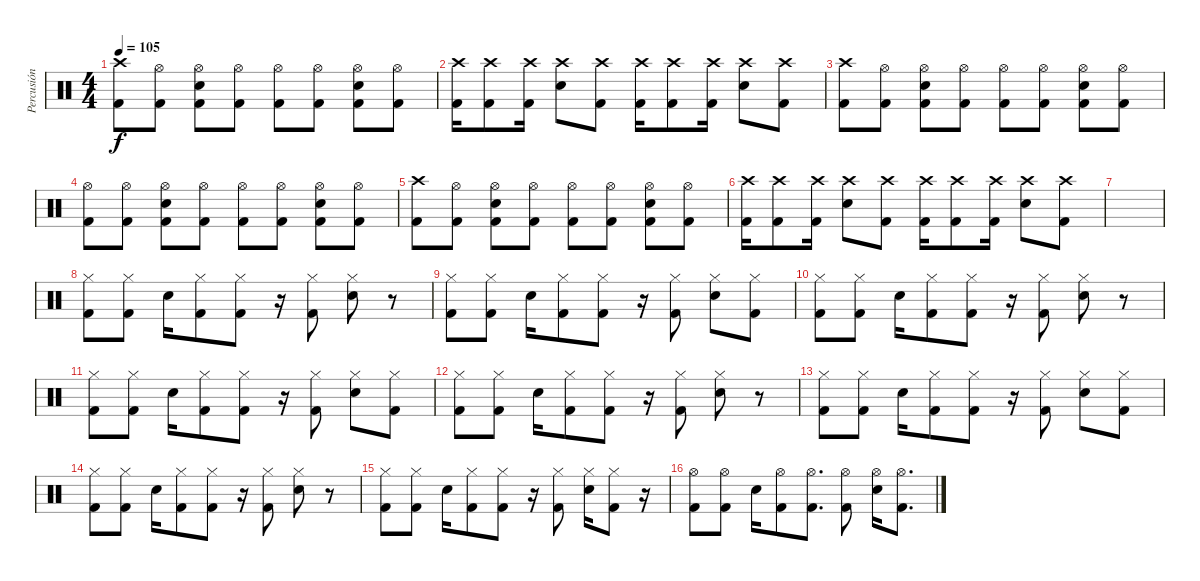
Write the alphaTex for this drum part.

\track ("Percusión" "Percusión") {instrument percussion}
\staff {score}
\articulation defaults
\ts (4 4)
\tempo 105
\clef neutral
\ks c
("Crash high (hit)" "Kick (hit) 2").8{dy f} ("Hi-Hat (open)" "Kick (hit) 2").8 ("Hi-Hat (open)" "Electric Snare (hit)" "Kick (hit) 2").8 ("Hi-Hat (open)" "Kick (hit) 2").8 ("Hi-Hat (open)" "Kick (hit) 2").8 ("Hi-Hat (open)" "Kick (hit) 2").8 ("Hi-Hat (open)" "Electric Snare (hit)" "Kick (hit) 2").8 ("Hi-Hat (open)" "Kick (hit) 2").8 |
("Crash high (hit)" "Kick (hit) 2").16 ("Crash high (hit)" "Kick (hit) 2").8 ("Crash high (hit)" "Kick (hit) 2").16 ("Crash high (hit)" "Electric Snare (hit)").8 ("Crash high (hit)" "Kick (hit) 2").8 ("Crash high (hit)" "Kick (hit) 2").16 ("Crash high (hit)" "Kick (hit) 2").8 ("Crash high (hit)" "Kick (hit) 2").16 ("Crash high (hit)" "Electric Snare (hit)").8 ("Crash high (hit)" "Kick (hit) 2").8 |
("Crash high (hit)" "Kick (hit) 2").8 ("Hi-Hat (open)" "Kick (hit) 2").8 ("Hi-Hat (open)" "Electric Snare (hit)" "Kick (hit) 2").8 ("Hi-Hat (open)" "Kick (hit) 2").8 ("Hi-Hat (open)" "Kick (hit) 2").8 ("Hi-Hat (open)" "Kick (hit) 2").8 ("Hi-Hat (open)" "Electric Snare (hit)" "Kick (hit) 2").8 ("Hi-Hat (open)" "Kick (hit) 2").8 |
("Hi-Hat (open)" "Kick (hit) 2").8 ("Hi-Hat (open)" "Kick (hit) 2").8 ("Hi-Hat (open)" "Electric Snare (hit)" "Kick (hit) 2").8 ("Hi-Hat (open)" "Kick (hit) 2").8 ("Hi-Hat (open)" "Kick (hit) 2").8 ("Hi-Hat (open)" "Kick (hit) 2").8 ("Hi-Hat (open)" "Electric Snare (hit)" "Kick (hit) 2").8 ("Hi-Hat (open)" "Kick (hit) 2").8 |
("Crash high (hit)" "Kick (hit) 2").8 ("Hi-Hat (open)" "Kick (hit) 2").8 ("Hi-Hat (open)" "Electric Snare (hit)" "Kick (hit) 2").8 ("Hi-Hat (open)" "Kick (hit) 2").8 ("Hi-Hat (open)" "Kick (hit) 2").8 ("Hi-Hat (open)" "Kick (hit) 2").8 ("Hi-Hat (open)" "Electric Snare (hit)" "Kick (hit) 2").8 ("Hi-Hat (open)" "Kick (hit) 2").8 |
("Crash high (hit)" "Kick (hit) 2").16 ("Crash high (hit)" "Kick (hit) 2").8 ("Crash high (hit)" "Kick (hit) 2").16 ("Crash high (hit)" "Electric Snare (hit)").8 ("Crash high (hit)" "Kick (hit) 2").8 ("Crash high (hit)" "Kick (hit) 2").16 ("Crash high (hit)" "Kick (hit) 2").8 ("Crash high (hit)" "Kick (hit) 2").16 ("Crash high (hit)" "Electric Snare (hit)").8 ("Crash high (hit)" "Kick (hit) 2").8 |
|
("Hi-Hat (closed)" "Kick (hit) 2").8{volume 10} ("Hi-Hat (closed)" "Kick (hit) 2").8 "Electric Snare (hit)".16 ("Hi-Hat (closed)" "Kick (hit) 2").8 ("Hi-Hat (closed)" "Kick (hit) 2").8 r.16 ("Hi-Hat (closed)" "Kick (hit) 2").8 ("Hi-Hat (closed)" "Electric Snare (hit)").8 r.8 |
("Hi-Hat (closed)" "Kick (hit) 2").8 ("Hi-Hat (closed)" "Kick (hit) 2").8 "Electric Snare (hit)".16 ("Hi-Hat (closed)" "Kick (hit) 2").8 ("Hi-Hat (closed)" "Kick (hit) 2").8 r.16 ("Hi-Hat (closed)" "Kick (hit) 2").8 ("Hi-Hat (closed)" "Electric Snare (hit)").8 ("Hi-Hat (closed)" "Kick (hit) 2").8 |
("Hi-Hat (closed)" "Kick (hit) 2").8 ("Hi-Hat (closed)" "Kick (hit) 2").8 "Electric Snare (hit)".16 ("Hi-Hat (closed)" "Kick (hit) 2").8 ("Hi-Hat (closed)" "Kick (hit) 2").8 r.16 ("Hi-Hat (closed)" "Kick (hit) 2").8 ("Hi-Hat (closed)" "Electric Snare (hit)").8 r.8 |
("Hi-Hat (closed)" "Kick (hit) 2").8 ("Hi-Hat (closed)" "Kick (hit) 2").8 "Electric Snare (hit)".16 ("Hi-Hat (closed)" "Kick (hit) 2").8 ("Hi-Hat (closed)" "Kick (hit) 2").8 r.16 ("Hi-Hat (closed)" "Kick (hit) 2").8 ("Hi-Hat (closed)" "Electric Snare (hit)").8 ("Hi-Hat (closed)" "Kick (hit) 2").8 |
("Hi-Hat (closed)" "Kick (hit) 2").8 ("Hi-Hat (closed)" "Kick (hit) 2").8 "Electric Snare (hit)".16 ("Hi-Hat (closed)" "Kick (hit) 2").8 ("Hi-Hat (closed)" "Kick (hit) 2").8 r.16 ("Hi-Hat (closed)" "Kick (hit) 2").8 ("Hi-Hat (closed)" "Electric Snare (hit)").8 r.8 |
("Hi-Hat (closed)" "Kick (hit) 2").8 ("Hi-Hat (closed)" "Kick (hit) 2").8 "Electric Snare (hit)".16 ("Hi-Hat (closed)" "Kick (hit) 2").8 ("Hi-Hat (closed)" "Kick (hit) 2").8 r.16 ("Hi-Hat (closed)" "Kick (hit) 2").8 ("Hi-Hat (closed)" "Electric Snare (hit)").8 ("Hi-Hat (closed)" "Kick (hit) 2").8 |
("Hi-Hat (closed)" "Kick (hit) 2").8 ("Hi-Hat (closed)" "Kick (hit) 2").8 "Electric Snare (hit)".16 ("Hi-Hat (closed)" "Kick (hit) 2").8 ("Hi-Hat (closed)" "Kick (hit) 2").8 r.16 ("Hi-Hat (closed)" "Kick (hit) 2").8 ("Hi-Hat (closed)" "Electric Snare (hit)").8 r.8 |
("Hi-Hat (closed)" "Kick (hit) 2").8 ("Hi-Hat (closed)" "Kick (hit) 2").8 "Electric Snare (hit)".16 ("Hi-Hat (closed)" "Kick (hit) 2").8 ("Hi-Hat (closed)" "Kick (hit) 2").8 r.16 ("Hi-Hat (closed)" "Kick (hit) 2").8{volume 15} ("Hi-Hat (closed)" "Electric Snare (hit)").16 ("Hi-Hat (closed)" "Kick (hit) 2").8 r.16 |
("Hi-Hat (open)" "Kick (hit) 2").8 ("Hi-Hat (open)" "Kick (hit) 2").8 "Electric Snare (hit)".16 ("Hi-Hat (open)" "Kick (hit) 2").8 ("Hi-Hat (open)" "Kick (hit) 2").8{d} ("Hi-Hat (open)" "Kick (hit) 2").8 ("Hi-Hat (open)" "Electric Snare (hit)").16 ("Hi-Hat (open)" "Kick (hit) 2").8{d}
